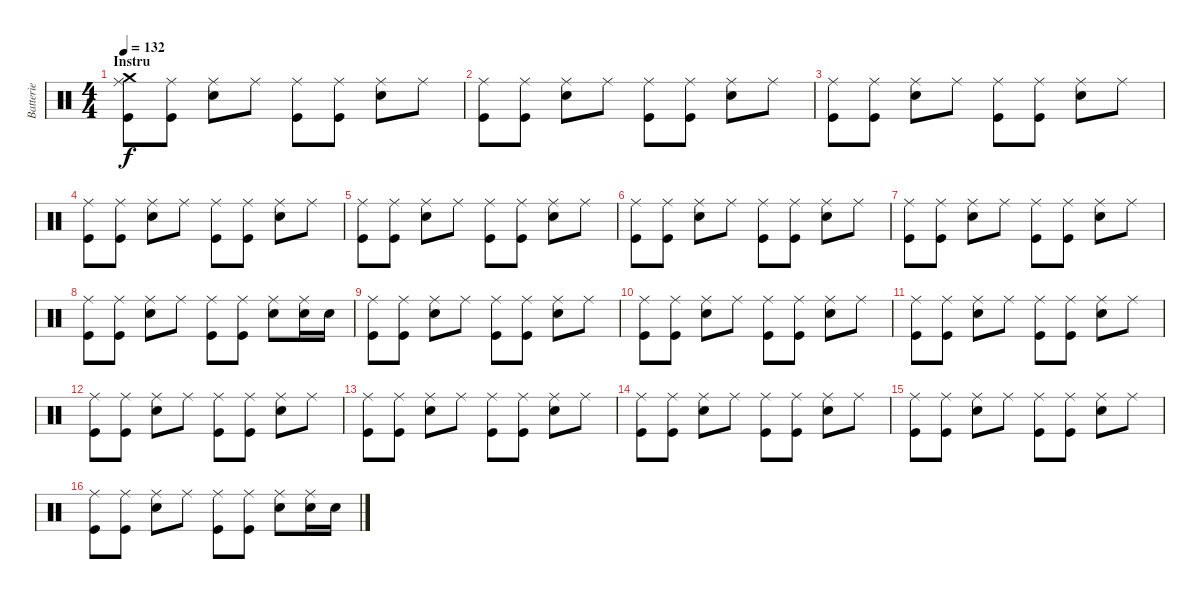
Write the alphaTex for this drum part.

\track ("Batterie" "Batterie") {instrument percussion}
\staff {score}
\articulation defaults
\ts (4 4)
\section ("" "Instru")
\tempo 132
\clef neutral
\ks c
("Ride (middle)" "Crash medium (hit)" "Kick (hit)").8{dy f} ("Ride (middle)" "Kick (hit)").8 ("Ride (middle)" "Snare (hit) 2").8 "Ride (middle)".8 ("Ride (middle)" "Kick (hit)").8 ("Ride (middle)" "Kick (hit)").8 ("Ride (middle)" "Snare (hit) 2").8 "Ride (middle)".8 |
("Ride (middle)" "Kick (hit)").8 ("Ride (middle)" "Kick (hit)").8 ("Ride (middle)" "Snare (hit) 2").8 "Ride (middle)".8 ("Ride (middle)" "Kick (hit)").8 ("Ride (middle)" "Kick (hit)").8 ("Ride (middle)" "Snare (hit) 2").8 "Ride (middle)".8 |
("Ride (middle)" "Kick (hit)").8 ("Ride (middle)" "Kick (hit)").8 ("Ride (middle)" "Snare (hit) 2").8 "Ride (middle)".8 ("Ride (middle)" "Kick (hit)").8 ("Ride (middle)" "Kick (hit)").8 ("Ride (middle)" "Snare (hit) 2").8 "Ride (middle)".8 |
("Ride (middle)" "Kick (hit)").8 ("Ride (middle)" "Kick (hit)").8 ("Ride (middle)" "Snare (hit) 2").8 "Ride (middle)".8 ("Ride (middle)" "Kick (hit)").8 ("Ride (middle)" "Kick (hit)").8 ("Ride (middle)" "Snare (hit) 2").8 "Ride (middle)".8 |
("Ride (middle)" "Kick (hit)").8 ("Ride (middle)" "Kick (hit)").8 ("Ride (middle)" "Snare (hit) 2").8 "Ride (middle)".8 ("Ride (middle)" "Kick (hit)").8 ("Ride (middle)" "Kick (hit)").8 ("Ride (middle)" "Snare (hit) 2").8 "Ride (middle)".8 |
("Ride (middle)" "Kick (hit)").8 ("Ride (middle)" "Kick (hit)").8 ("Ride (middle)" "Snare (hit) 2").8 "Ride (middle)".8 ("Ride (middle)" "Kick (hit)").8 ("Ride (middle)" "Kick (hit)").8 ("Ride (middle)" "Snare (hit) 2").8 "Ride (middle)".8 |
("Ride (middle)" "Kick (hit)").8 ("Ride (middle)" "Kick (hit)").8 ("Ride (middle)" "Snare (hit) 2").8 "Ride (middle)".8 ("Ride (middle)" "Kick (hit)").8 ("Ride (middle)" "Kick (hit)").8 ("Ride (middle)" "Snare (hit) 2").8 "Ride (middle)".8 |
("Ride (middle)" "Kick (hit)").8 ("Ride (middle)" "Kick (hit)").8 ("Ride (middle)" "Snare (hit) 2").8 "Ride (middle)".8 ("Ride (middle)" "Kick (hit)").8 ("Ride (middle)" "Kick (hit)").8 ("Ride (middle)" "Snare (hit) 2").8 ("Ride (middle)" "Snare (hit) 2").16 "Snare (hit) 2".16 |
("Ride (middle)" "Kick (hit)").8 ("Ride (middle)" "Kick (hit)").8 ("Ride (middle)" "Snare (hit) 2").8 "Ride (middle)".8 ("Ride (middle)" "Kick (hit)").8 ("Ride (middle)" "Kick (hit)").8 ("Ride (middle)" "Snare (hit) 2").8 "Ride (middle)".8 |
("Ride (middle)" "Kick (hit)").8 ("Ride (middle)" "Kick (hit)").8 ("Ride (middle)" "Snare (hit) 2").8 "Ride (middle)".8 ("Ride (middle)" "Kick (hit)").8 ("Ride (middle)" "Kick (hit)").8 ("Ride (middle)" "Snare (hit) 2").8 "Ride (middle)".8 |
("Ride (middle)" "Kick (hit)").8 ("Ride (middle)" "Kick (hit)").8 ("Ride (middle)" "Snare (hit) 2").8 "Ride (middle)".8 ("Ride (middle)" "Kick (hit)").8 ("Ride (middle)" "Kick (hit)").8 ("Ride (middle)" "Snare (hit) 2").8 "Ride (middle)".8 |
("Ride (middle)" "Kick (hit)").8 ("Ride (middle)" "Kick (hit)").8 ("Ride (middle)" "Snare (hit) 2").8 "Ride (middle)".8 ("Ride (middle)" "Kick (hit)").8 ("Ride (middle)" "Kick (hit)").8 ("Ride (middle)" "Snare (hit) 2").8 "Ride (middle)".8 |
("Ride (middle)" "Kick (hit)").8 ("Ride (middle)" "Kick (hit)").8 ("Ride (middle)" "Snare (hit) 2").8 "Ride (middle)".8 ("Ride (middle)" "Kick (hit)").8 ("Ride (middle)" "Kick (hit)").8 ("Ride (middle)" "Snare (hit) 2").8 "Ride (middle)".8 |
("Ride (middle)" "Kick (hit)").8 ("Ride (middle)" "Kick (hit)").8 ("Ride (middle)" "Snare (hit) 2").8 "Ride (middle)".8 ("Ride (middle)" "Kick (hit)").8 ("Ride (middle)" "Kick (hit)").8 ("Ride (middle)" "Snare (hit) 2").8 "Ride (middle)".8 |
("Ride (middle)" "Kick (hit)").8 ("Ride (middle)" "Kick (hit)").8 ("Ride (middle)" "Snare (hit) 2").8 "Ride (middle)".8 ("Ride (middle)" "Kick (hit)").8 ("Ride (middle)" "Kick (hit)").8 ("Ride (middle)" "Snare (hit) 2").8 "Ride (middle)".8 |
("Ride (middle)" "Kick (hit)").8 ("Ride (middle)" "Kick (hit)").8 ("Ride (middle)" "Snare (hit) 2").8 "Ride (middle)".8 ("Ride (middle)" "Kick (hit)").8 ("Ride (middle)" "Kick (hit)").8 ("Ride (middle)" "Snare (hit) 2").8 ("Ride (middle)" "Snare (hit) 2").16 "Snare (hit) 2".16
